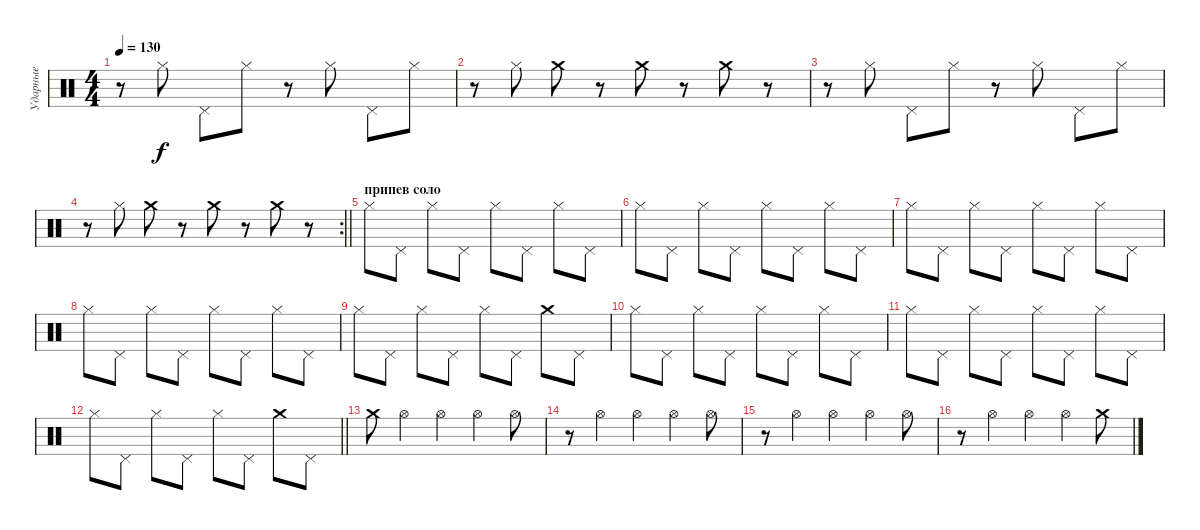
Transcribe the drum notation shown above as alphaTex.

\track ("Ударные" "Ударные") {instrument percussion}
\staff {score}
\articulation defaults
\ts (4 4)
\tempo 130
\clef neutral
\ks c
r.8{dy f} "Hi-Hat (closed)".8 "Pedal Hi-Hat (hit)".8 "Hi-Hat (closed)".8 r.8 "Hi-Hat (closed)".8 "Pedal Hi-Hat (hit)".8 "Hi-Hat (closed)".8 |
r.8 "Hi-Hat (closed)".8 "Crash medium (hit)".8 r.8 "Crash medium (hit)".8 r.8 "Crash medium (hit)".8 r.8 |
r.8 "Hi-Hat (closed)".8 "Pedal Hi-Hat (hit)".8 "Hi-Hat (closed)".8 r.8 "Hi-Hat (closed)".8 "Pedal Hi-Hat (hit)".8 "Hi-Hat (closed)".8 |
\rc 2
\barLineRight lightlight
r.8 "Hi-Hat (closed)".8 "Crash medium (hit)".8 r.8 "Crash medium (hit)".8 r.8 "Crash medium (hit)".8 r.8 |
\section ("" "припев соло")
"Hi-Hat (closed)".8 "Pedal Hi-Hat (hit)".8 "Hi-Hat (closed)".8 "Pedal Hi-Hat (hit)".8 "Hi-Hat (closed)".8 "Pedal Hi-Hat (hit)".8 "Hi-Hat (closed)".8 "Pedal Hi-Hat (hit)".8 |
"Hi-Hat (closed)".8 "Pedal Hi-Hat (hit)".8 "Hi-Hat (closed)".8 "Pedal Hi-Hat (hit)".8 "Hi-Hat (closed)".8 "Pedal Hi-Hat (hit)".8 "Hi-Hat (closed)".8 "Pedal Hi-Hat (hit)".8 |
"Hi-Hat (closed)".8 "Pedal Hi-Hat (hit)".8 "Hi-Hat (closed)".8 "Pedal Hi-Hat (hit)".8 "Hi-Hat (closed)".8 "Pedal Hi-Hat (hit)".8 "Hi-Hat (closed)".8 "Pedal Hi-Hat (hit)".8 |
"Hi-Hat (closed)".8 "Pedal Hi-Hat (hit)".8 "Hi-Hat (closed)".8 "Pedal Hi-Hat (hit)".8 "Hi-Hat (closed)".8 "Pedal Hi-Hat (hit)".8 "Hi-Hat (closed)".8 "Pedal Hi-Hat (hit)".8 |
"Hi-Hat (closed)".8 "Pedal Hi-Hat (hit)".8 "Hi-Hat (closed)".8 "Pedal Hi-Hat (hit)".8 "Hi-Hat (closed)".8 "Pedal Hi-Hat (hit)".8 "Crash medium (hit)".8 "Pedal Hi-Hat (hit)".8 |
"Hi-Hat (closed)".8 "Pedal Hi-Hat (hit)".8 "Hi-Hat (closed)".8 "Pedal Hi-Hat (hit)".8 "Hi-Hat (closed)".8 "Pedal Hi-Hat (hit)".8 "Hi-Hat (closed)".8 "Pedal Hi-Hat (hit)".8 |
"Hi-Hat (closed)".8 "Pedal Hi-Hat (hit)".8 "Hi-Hat (closed)".8 "Pedal Hi-Hat (hit)".8 "Hi-Hat (closed)".8 "Pedal Hi-Hat (hit)".8 "Hi-Hat (closed)".8 "Pedal Hi-Hat (hit)".8 |
\barLineRight lightlight "Hi-Hat (closed)".8 "Pedal Hi-Hat (hit)".8 "Hi-Hat (closed)".8 "Pedal Hi-Hat (hit)".8 "Hi-Hat (closed)".8 "Pedal Hi-Hat (hit)".8 "Crash medium (hit)".8 "Pedal Hi-Hat (hit)".8
|
"Crash medium (hit)".8 "Hi-Hat (open)".4 "Hi-Hat (open)".4 "Hi-Hat (open)".4 "Hi-Hat (open)".8 |
r.8 "Hi-Hat (open)".4 "Hi-Hat (open)".4 "Hi-Hat (open)".4 "Hi-Hat (open)".8 |
r.8 "Hi-Hat (open)".4 "Hi-Hat (open)".4 "Hi-Hat (open)".4 "Hi-Hat (open)".8 |
r.8 "Hi-Hat (open)".4 "Hi-Hat (open)".4 "Hi-Hat (open)".4 "Crash medium (hit)".8
